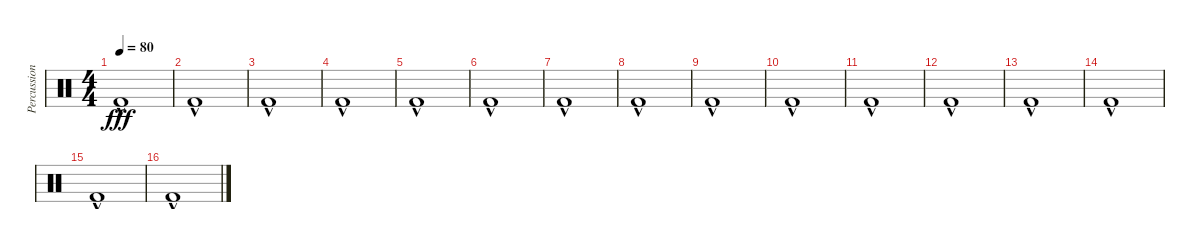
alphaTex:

\track ("Percussion" "Percussion") {instrument percussion bank 255}
\staff {score}
\articulation defaults
\ts (4 4)
\tempo 80
\clef neutral
\ks c "Kick (hit) 2"{hac}.1{dy fff}
|
"Kick (hit) 2"{hac}.1 |
"Kick (hit) 2"{hac}.1 |
"Kick (hit) 2"{hac}.1 |
"Kick (hit) 2"{hac}.1 |
"Kick (hit) 2"{hac}.1 |
"Kick (hit) 2"{hac}.1 |
"Kick (hit) 2"{hac}.1 |
"Kick (hit) 2"{hac}.1 |
"Kick (hit) 2"{hac}.1 |
"Kick (hit) 2"{hac}.1 |
"Kick (hit) 2"{hac}.1 |
"Kick (hit) 2"{hac}.1 |
"Kick (hit) 2"{hac}.1 |
"Kick (hit) 2"{hac}.1 |
"Kick (hit) 2"{hac}.1
